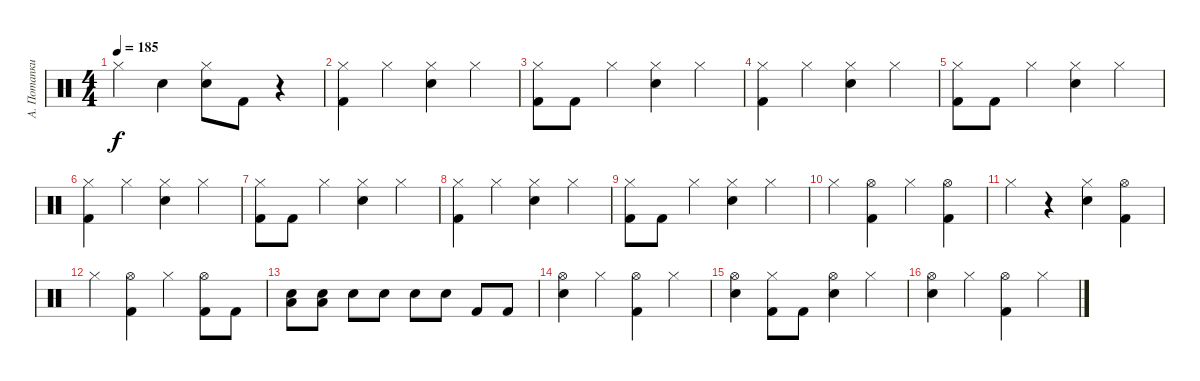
\track ("А. Потапкин" "А. Потапки") {instrument percussion}
\staff {score}
\articulation defaults
\ts (4 4)
\tempo 185
\clef neutral
\ks c "Hi-Hat (closed)".4{dy f} "Snare (hit) 2".4
("Hi-Hat (closed)" "Snare (hit) 2").8 "Kick (hit) 2".8 r.4 |
("Hi-Hat (closed)" "Kick (hit) 2").4 "Hi-Hat (closed)".4 ("Hi-Hat (closed)" "Snare (hit) 2").4 "Hi-Hat (closed)".4 |
("Hi-Hat (closed)" "Kick (hit) 2").8 "Kick (hit) 2".8 "Hi-Hat (closed)".4 ("Hi-Hat (closed)" "Snare (hit) 2").4 "Hi-Hat (closed)".4 |
("Hi-Hat (closed)" "Kick (hit) 2").4 "Hi-Hat (closed)".4 ("Hi-Hat (closed)" "Snare (hit) 2").4 "Hi-Hat (closed)".4 |
("Hi-Hat (closed)" "Kick (hit) 2").8 "Kick (hit) 2".8 "Hi-Hat (closed)".4 ("Hi-Hat (closed)" "Snare (hit) 2").4 "Hi-Hat (closed)".4 |
("Hi-Hat (closed)" "Kick (hit) 2").4 "Hi-Hat (closed)".4 ("Hi-Hat (closed)" "Snare (hit) 2").4 "Hi-Hat (closed)".4 |
("Hi-Hat (closed)" "Kick (hit) 2").8 "Kick (hit) 2".8 "Hi-Hat (closed)".4 ("Hi-Hat (closed)" "Snare (hit) 2").4 "Hi-Hat (closed)".4 |
("Hi-Hat (closed)" "Kick (hit) 2").4 "Hi-Hat (closed)".4 ("Hi-Hat (closed)" "Snare (hit) 2").4 "Hi-Hat (closed)".4 |
("Hi-Hat (closed)" "Kick (hit) 2").8 "Kick (hit) 2".8 "Hi-Hat (closed)".4 ("Hi-Hat (closed)" "Snare (hit) 2").4 "Hi-Hat (closed)".4 |
"Hi-Hat (closed)".4 ("Hi-Hat (open)" "Kick (hit) 2").4 "Hi-Hat (closed)".4 ("Hi-Hat (open)" "Kick (hit) 2").4 |
"Hi-Hat (closed)".4 r.4 ("Hi-Hat (closed)" "Snare (hit) 2").4 ("Hi-Hat (open)" "Kick (hit) 2").4 |
"Hi-Hat (closed)".4 ("Hi-Hat (open)" "Kick (hit) 2").4 "Hi-Hat (closed)".4 ("Hi-Hat (open)" "Kick (hit) 2").8 "Kick (hit) 2".8 |
("Electric Snare (hit)" "Low Floor Tom (hit)").8 ("Electric Snare (hit)" "Low Floor Tom (hit)").8 "Electric Snare (hit)".8 "Electric Snare (hit)".8 "Snare (hit) 2".8 "Snare (hit) 2".8 "Kick (hit) 2".8 "Kick (hit) 2".8 |
("Hi-Hat (open)" "Snare (hit) 2").4 "Hi-Hat (closed)".4 ("Hi-Hat (open)" "Kick (hit) 2").4 "Hi-Hat (closed)".4 |
("Hi-Hat (open)" "Snare (hit) 2").4 ("Hi-Hat (closed)" "Kick (hit) 2").8 "Kick (hit) 2".8 ("Hi-Hat (open)" "Snare (hit) 2").4 "Hi-Hat (closed)".4 |
("Hi-Hat (open)" "Snare (hit) 2").4 "Hi-Hat (closed)".4 ("Hi-Hat (open)" "Kick (hit) 2").4 "Hi-Hat (closed)".4
